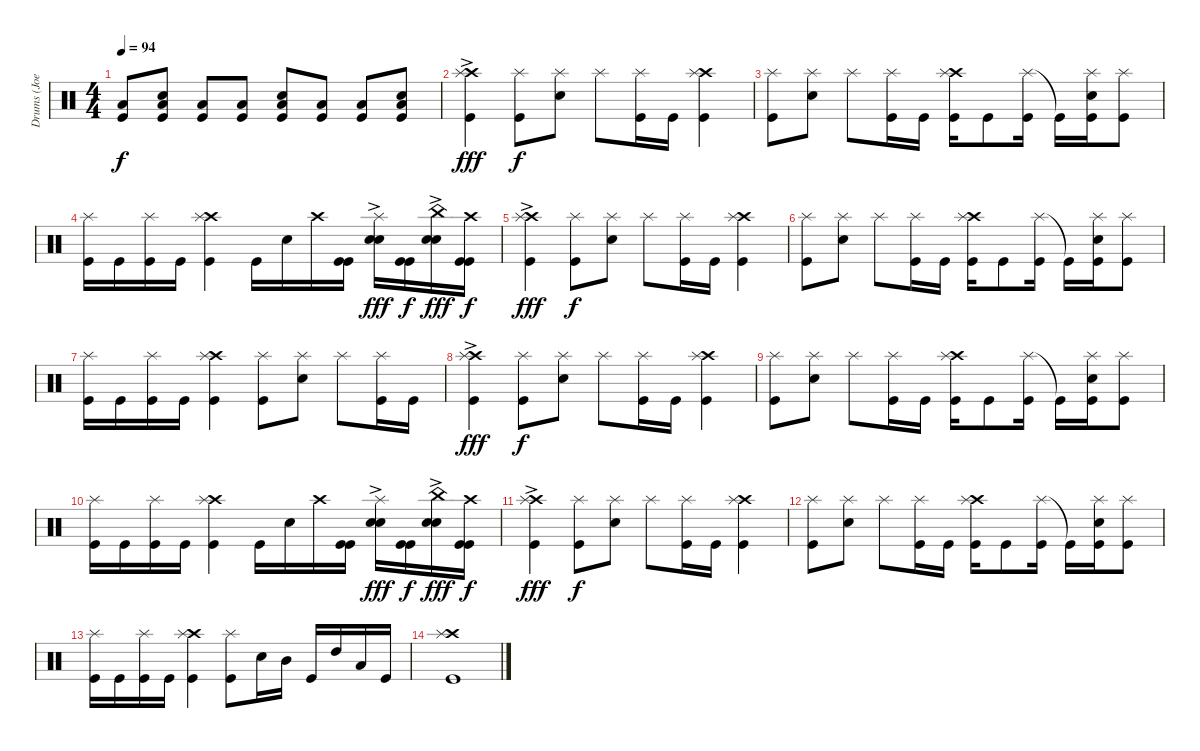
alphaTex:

\track ("Drums (Joe)" "Drums (Joe") {instrument percussion}
\staff {score}
\articulation defaults
\ts (4 4)
\tempo 94
\clef neutral
\ks c
("Low Floor Tom (hit)" "Kick (hit)").8{dy f} ("Snare (hit) 2" "Low Floor Tom (hit)" "Kick (hit)").8 ("Low Floor Tom (hit)" "Kick (hit)").8 ("Low Floor Tom (hit)" "Kick (hit)").8 ("Snare (hit) 2" "Low Floor Tom (hit)" "Kick (hit)").8 ("Low Floor Tom (hit)" "Kick (hit)").8 ("Low Floor Tom (hit)" "Kick (hit)").8 ("Snare (hit) 2" "Low Floor Tom (hit)" "Kick (hit)").8 |
("Crash high (hit)" "Splash (hit)"{ac} "Kick (hit)").4{dy fff} ("Splash (hit)" "Kick (hit)").8{dy f} ("Splash (hit)" "Snare (hit) 2").8 "Splash (hit)".8 ("Splash (hit)" "Kick (hit)").16 "Kick (hit)".16 ("Crash high (hit)" "Splash (hit)" "Kick (hit)").4 |
("Splash (hit)" "Kick (hit)").8 ("Splash (hit)" "Snare (hit) 2").8 "Splash (hit)".8 ("Splash (hit)" "Kick (hit)").16 "Kick (hit)".16 ("Crash high (hit)" "Splash (hit)" "Kick (hit)").16 "Kick (hit)".8 ("Splash (hit)" "Kick (hit)").16 "Kick (hit)"{t}.16 ("Splash (hit)" "Snare (hit) 2" "Kick (hit)").16 ("Splash (hit)" "Kick (hit)").8 |
("Splash (hit)" "Kick (hit)").16 "Kick (hit)".16 ("Splash (hit)" "Kick (hit)").16 "Kick (hit)".16 ("Crash high (hit)" "Splash (hit)" "Kick (hit)").4 "Kick (hit)".16 "Snare (hit) 2".16 "Crash high (hit)".16 ("Kick (hit)" "Kick (hit)").16 ("Splash (hit)"{ac} "Snare (hit) 2" "Snare (hit) 2").16{dy fff} ("Kick (hit)" "Kick (hit)").16{dy f} ("China (hit)"{ac} "Snare (hit) 2" "Snare (hit) 2").16{dy fff} ("Crash high (hit)" "Kick (hit)" "Kick (hit)").16{dy f} |
("Crash high (hit)" "Splash (hit)"{ac} "Kick (hit)").4{dy fff} ("Splash (hit)" "Kick (hit)").8{dy f} ("Splash (hit)" "Snare (hit) 2").8 "Splash (hit)".8 ("Splash (hit)" "Kick (hit)").16 "Kick (hit)".16 ("Crash high (hit)" "Splash (hit)" "Kick (hit)").4 |
("Splash (hit)" "Kick (hit)").8 ("Splash (hit)" "Snare (hit) 2").8 "Splash (hit)".8 ("Splash (hit)" "Kick (hit)").16 "Kick (hit)".16 ("Crash high (hit)" "Splash (hit)" "Kick (hit)").16 "Kick (hit)".8 ("Splash (hit)" "Kick (hit)").16 "Kick (hit)"{t}.16 ("Splash (hit)" "Snare (hit) 2" "Kick (hit)").16 ("Splash (hit)" "Kick (hit)").8 |
("Splash (hit)" "Kick (hit)").16 "Kick (hit)".16 ("Splash (hit)" "Kick (hit)").16 "Kick (hit)".16 ("Crash high (hit)" "Splash (hit)" "Kick (hit)").4 ("Splash (hit)" "Kick (hit)").8 ("Splash (hit)" "Snare (hit) 2").8 "Splash (hit)".8 ("Splash (hit)" "Kick (hit)").16 "Kick (hit)".16 |
("Crash high (hit)" "Splash (hit)"{ac} "Kick (hit)").4{dy fff} ("Splash (hit)" "Kick (hit)").8{dy f} ("Splash (hit)" "Snare (hit) 2").8 "Splash (hit)".8 ("Splash (hit)" "Kick (hit)").16 "Kick (hit)".16 ("Crash high (hit)" "Splash (hit)" "Kick (hit)").4 |
("Splash (hit)" "Kick (hit)").8 ("Splash (hit)" "Snare (hit) 2").8 "Splash (hit)".8 ("Splash (hit)" "Kick (hit)").16 "Kick (hit)".16 ("Crash high (hit)" "Splash (hit)" "Kick (hit)").16 "Kick (hit)".8 ("Splash (hit)" "Kick (hit)").16 "Kick (hit)"{t}.16 ("Splash (hit)" "Snare (hit) 2" "Kick (hit)").16 ("Splash (hit)" "Kick (hit)").8 |
("Splash (hit)" "Kick (hit)").16 "Kick (hit)".16 ("Splash (hit)" "Kick (hit)").16 "Kick (hit)".16 ("Crash high (hit)" "Splash (hit)" "Kick (hit)").4 "Kick (hit)".16 "Snare (hit) 2".16 "Crash high (hit)".16 ("Kick (hit)" "Kick (hit)").16 ("Splash (hit)"{ac} "Snare (hit) 2" "Snare (hit) 2").16{dy fff} ("Kick (hit)" "Kick (hit)").16{dy f} ("China (hit)"{ac} "Snare (hit) 2" "Snare (hit) 2").16{dy fff} ("Crash high (hit)" "Kick (hit)" "Kick (hit)").16{dy f} |
("Crash high (hit)" "Splash (hit)"{ac} "Kick (hit)").4{dy fff} ("Splash (hit)" "Kick (hit)").8{dy f} ("Splash (hit)" "Snare (hit) 2").8 "Splash (hit)".8 ("Splash (hit)" "Kick (hit)").16 "Kick (hit)".16 ("Crash high (hit)" "Splash (hit)" "Kick (hit)").4 |
("Splash (hit)" "Kick (hit)").8 ("Splash (hit)" "Snare (hit) 2").8 "Splash (hit)".8 ("Splash (hit)" "Kick (hit)").16 "Kick (hit)".16 ("Crash high (hit)" "Splash (hit)" "Kick (hit)").16 "Kick (hit)".8 ("Splash (hit)" "Kick (hit)").16 "Kick (hit)"{t}.16 ("Splash (hit)" "Snare (hit) 2" "Kick (hit)").16 ("Splash (hit)" "Kick (hit)").8 |
("Splash (hit)" "Kick (hit)").16 "Kick (hit)".16 ("Splash (hit)" "Kick (hit)").16 "Kick (hit)".16 ("Crash high (hit)" "Splash (hit)" "Kick (hit)").4 ("Splash (hit)" "Kick (hit)").8 "Snare (hit) 2".16 "Mid Tom (hit)".16 "Kick (hit)".16 "High Tom (hit)".16 "Low Tom (hit)".16 "Kick (hit)".16 |
("Crash high (hit)" "Splash (hit)" "Kick (hit)").1
